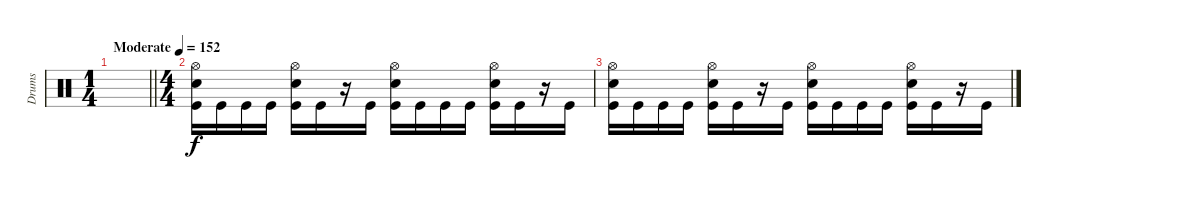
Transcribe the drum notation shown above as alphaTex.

\track ("Drums" "Drums") {instrument percussion}
\staff
\articulation defaults
\ts (1 4)
\tempo (152 "Moderate")
\clef neutral
\barLineRight lightlight
\ks c
|
\ts (4 4)
("Hi-Hat (open)" "Electric Snare (hit)" "Kick (hit)").16 "Kick (hit)".16 "Kick (hit)".16 "Kick (hit)".16 ("Hi-Hat (open)" "Electric Snare (hit)" "Kick (hit)").16 "Kick (hit)".16 r.16 "Kick (hit)".16 ("Hi-Hat (open)" "Electric Snare (hit)" "Kick (hit)").16 "Kick (hit)".16 "Kick (hit)".16 "Kick (hit)".16 ("Hi-Hat (open)" "Electric Snare (hit)" "Kick (hit)").16 "Kick (hit)".16 r.16 "Kick (hit)".16 |
("Hi-Hat (open)" "Electric Snare (hit)" "Kick (hit)").16 "Kick (hit)".16 "Kick (hit)".16 "Kick (hit)".16 ("Hi-Hat (open)" "Electric Snare (hit)" "Kick (hit)").16 "Kick (hit)".16 r.16 "Kick (hit)".16 ("Hi-Hat (open)" "Electric Snare (hit)" "Kick (hit)").16 "Kick (hit)".16 "Kick (hit)".16 "Kick (hit)".16 ("Hi-Hat (open)" "Electric Snare (hit)" "Kick (hit)").16 "Kick (hit)".16 r.16 "Kick (hit)".16
